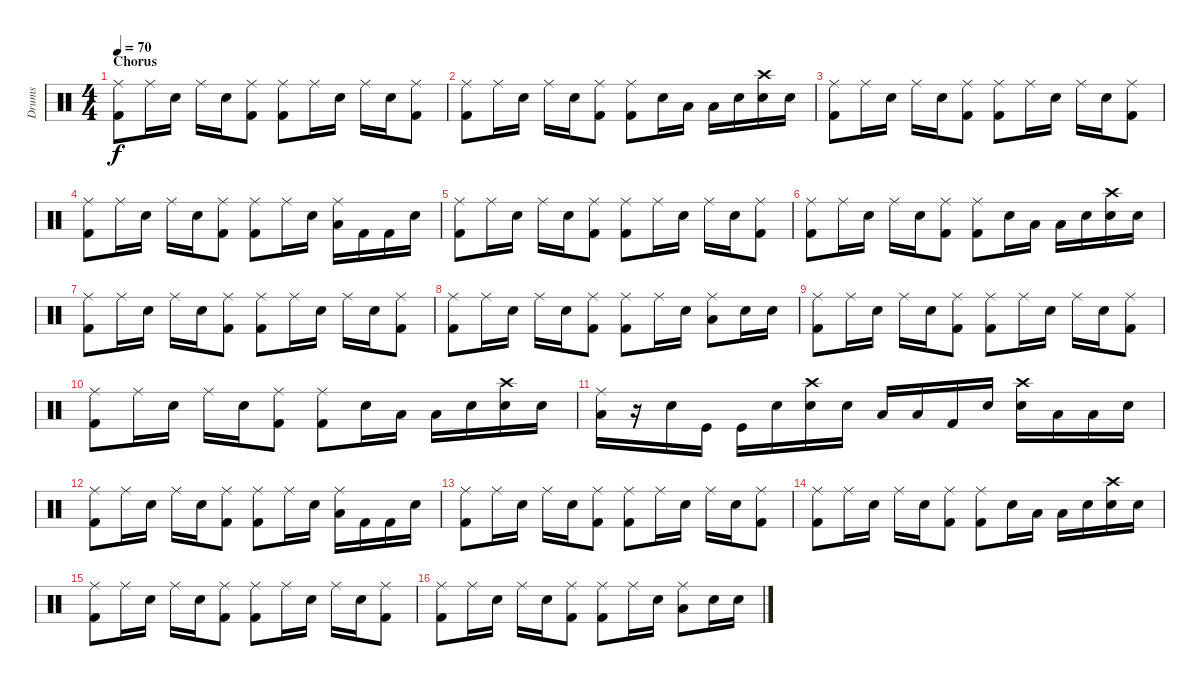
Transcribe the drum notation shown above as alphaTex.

\track ("Drums" "Drums") {instrument percussion}
\staff {score}
\articulation defaults
\ts (4 4)
\section ("" "Chorus")
\tempo 70
\clef neutral
\ks c
("Ride (middle)" "Kick (hit) 2").8{dy f} "Ride (middle)".16 "Snare (hit) 2".16 "Ride (middle)".16 "Snare (hit) 2".16 ("Ride (middle)" "Kick (hit) 2").8 ("Ride (middle)" "Kick (hit) 2").8 "Ride (middle)".16 "Snare (hit) 2".16 "Ride (middle)".16 "Snare (hit) 2".16 ("Ride (middle)" "Kick (hit) 2").8 |
("Ride (middle)" "Kick (hit) 2").8 "Ride (middle)".16 "Snare (hit) 2".16 "Ride (middle)".16 "Snare (hit) 2".16 ("Ride (middle)" "Kick (hit) 2").8 ("Ride (middle)" "Kick (hit) 2").8 "Snare (hit) 2".16 "Low Tom (hit)".16 "Low Tom (hit)".16 "Snare (hit) 2".16 ("Crash high (hit)" "Snare (hit) 2").16 "Snare (hit) 2".16 |
("Ride (middle)" "Kick (hit) 2").8 "Ride (middle)".16 "Snare (hit) 2".16 "Ride (middle)".16 "Snare (hit) 2".16 ("Ride (middle)" "Kick (hit) 2").8 ("Ride (middle)" "Kick (hit) 2").8 "Ride (middle)".16 "Snare (hit) 2".16 "Ride (middle)".16 "Snare (hit) 2".16 ("Ride (middle)" "Kick (hit) 2").8 |
("Ride (middle)" "Kick (hit) 2").8 "Ride (middle)".16 "Snare (hit) 2".16 "Ride (middle)".16 "Snare (hit) 2".16 ("Ride (middle)" "Kick (hit) 2").8 ("Ride (middle)" "Kick (hit) 2").8 "Ride (middle)".16 "Snare (hit) 2".16 ("Ride (middle)" "Low Tom (hit)").16 "Kick (hit) 2".16 "Kick (hit) 2".16 "Snare (hit) 2".16 |
("Ride (middle)" "Kick (hit) 2").8 "Ride (middle)".16 "Snare (hit) 2".16 "Ride (middle)".16 "Snare (hit) 2".16 ("Ride (middle)" "Kick (hit) 2").8 ("Ride (middle)" "Kick (hit) 2").8 "Ride (middle)".16 "Snare (hit) 2".16 "Ride (middle)".16 "Snare (hit) 2".16 ("Ride (middle)" "Kick (hit) 2").8 |
("Ride (middle)" "Kick (hit) 2").8 "Ride (middle)".16 "Snare (hit) 2".16 "Ride (middle)".16 "Snare (hit) 2".16 ("Ride (middle)" "Kick (hit) 2").8 ("Ride (middle)" "Kick (hit) 2").8 "Snare (hit) 2".16 "Low Tom (hit)".16 "Low Tom (hit)".16 "Snare (hit) 2".16 ("Crash high (hit)" "Snare (hit) 2").16 "Snare (hit) 2".16 |
("Ride (middle)" "Kick (hit) 2").8 "Ride (middle)".16 "Snare (hit) 2".16 "Ride (middle)".16 "Snare (hit) 2".16 ("Ride (middle)" "Kick (hit) 2").8 ("Ride (middle)" "Kick (hit) 2").8 "Ride (middle)".16 "Snare (hit) 2".16 "Ride (middle)".16 "Snare (hit) 2".16 ("Ride (middle)" "Kick (hit) 2").8 |
("Ride (middle)" "Kick (hit) 2").8 "Ride (middle)".16 "Snare (hit) 2".16 "Ride (middle)".16 "Snare (hit) 2".16 ("Ride (middle)" "Kick (hit) 2").8 ("Ride (middle)" "Kick (hit) 2").8 "Ride (middle)".16 "Snare (hit) 2".16 ("Ride (middle)" "Low Tom (hit)").8 "Snare (hit) 2".16 "Snare (hit) 2".16 |
("Ride (middle)" "Kick (hit) 2").8 "Ride (middle)".16 "Snare (hit) 2".16 "Ride (middle)".16 "Snare (hit) 2".16 ("Ride (middle)" "Kick (hit) 2").8 ("Ride (middle)" "Kick (hit) 2").8 "Ride (middle)".16 "Snare (hit) 2".16 "Ride (middle)".16 "Snare (hit) 2".16 ("Ride (middle)" "Kick (hit) 2").8 |
("Ride (middle)" "Kick (hit) 2").8 "Ride (middle)".16 "Snare (hit) 2".16 "Ride (middle)".16 "Snare (hit) 2".16 ("Ride (middle)" "Kick (hit) 2").8 ("Ride (middle)" "Kick (hit) 2").8 "Snare (hit) 2".16 "Low Tom (hit)".16 "Low Tom (hit)".16 "Snare (hit) 2".16 ("Crash high (hit)" "Snare (hit) 2").16 "Snare (hit) 2".16 |
("Ride (middle)" "Low Tom (hit)").16 r.16 "Snare (hit) 2".16 "Kick (hit)".16 "Kick (hit)".16 "Snare (hit) 2".16 ("Crash high (hit)" "Snare (hit) 2").16 "Snare (hit) 2".16 "Low Tom (hit)".16 "Low Tom (hit)".16 "Kick (hit) 2".16 "Snare (hit) 2".16 ("Crash high (hit)" "Snare (hit) 2").16 "Low Tom (hit)".16 "Low Tom (hit)".16 "Snare (hit) 2".16 |
("Ride (middle)" "Kick (hit) 2").8 "Ride (middle)".16 "Snare (hit) 2".16 "Ride (middle)".16 "Snare (hit) 2".16 ("Ride (middle)" "Kick (hit) 2").8 ("Ride (middle)" "Kick (hit) 2").8 "Ride (middle)".16 "Snare (hit) 2".16 ("Ride (middle)" "Low Tom (hit)").16 "Kick (hit) 2".16 "Kick (hit) 2".16 "Snare (hit) 2".16 |
("Ride (middle)" "Kick (hit) 2").8 "Ride (middle)".16 "Snare (hit) 2".16 "Ride (middle)".16 "Snare (hit) 2".16 ("Ride (middle)" "Kick (hit) 2").8 ("Ride (middle)" "Kick (hit) 2").8 "Ride (middle)".16 "Snare (hit) 2".16 "Ride (middle)".16 "Snare (hit) 2".16 ("Ride (middle)" "Kick (hit) 2").8 |
("Ride (middle)" "Kick (hit) 2").8 "Ride (middle)".16 "Snare (hit) 2".16 "Ride (middle)".16 "Snare (hit) 2".16 ("Ride (middle)" "Kick (hit) 2").8 ("Ride (middle)" "Kick (hit) 2").8 "Snare (hit) 2".16 "Low Tom (hit)".16 "Low Tom (hit)".16 "Snare (hit) 2".16 ("Crash high (hit)" "Snare (hit) 2").16 "Snare (hit) 2".16 |
("Ride (middle)" "Kick (hit) 2").8 "Ride (middle)".16 "Snare (hit) 2".16 "Ride (middle)".16 "Snare (hit) 2".16 ("Ride (middle)" "Kick (hit) 2").8 ("Ride (middle)" "Kick (hit) 2").8 "Ride (middle)".16 "Snare (hit) 2".16 "Ride (middle)".16 "Snare (hit) 2".16 ("Ride (middle)" "Kick (hit) 2").8 |
("Ride (middle)" "Kick (hit) 2").8 "Ride (middle)".16 "Snare (hit) 2".16 "Ride (middle)".16 "Snare (hit) 2".16 ("Ride (middle)" "Kick (hit) 2").8 ("Ride (middle)" "Kick (hit) 2").8 "Ride (middle)".16 "Snare (hit) 2".16 ("Ride (middle)" "Low Tom (hit)").8 "Snare (hit) 2".16 "Snare (hit) 2".16
